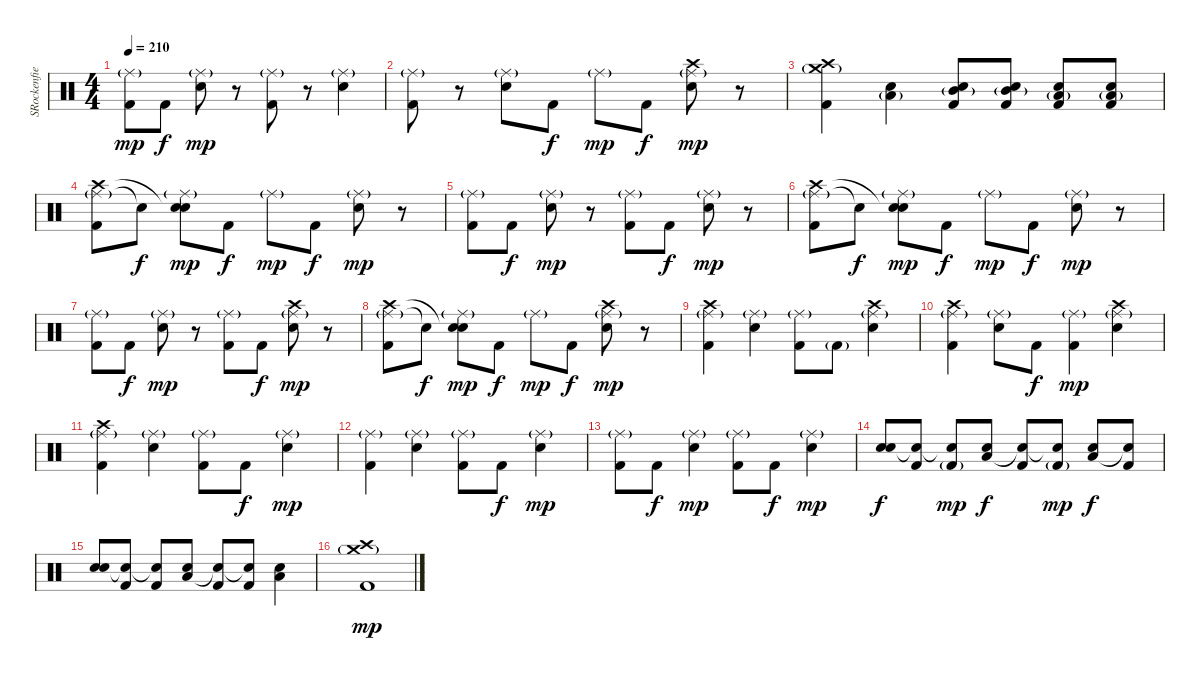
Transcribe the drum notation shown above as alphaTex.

\track ("SRockenfield" "SRockenfie") {instrument percussion}
\staff {score}
\articulation defaults
\ts (4 4)
\tempo 210
\clef neutral
\ks c
("Ride (middle)"{g} "Kick (hit) 2").8{dy mp} "Kick (hit) 2".8{dy f} ("Ride (middle)"{g} "Electric Snare (hit)").8{dy mp} r.8 ("Ride (middle)"{g} "Kick (hit) 2").8 r.8 ("Ride (middle)"{g} "Electric Snare (hit)").4 |
("Ride (middle)"{g} "Kick (hit) 2").8 r.8 ("Ride (middle)"{g} "Electric Snare (hit)").8 "Kick (hit) 2".8{dy f} "Ride (middle)"{g}.8{dy mp} "Kick (hit) 2".8{dy f} ("Ride (middle)"{g} "Crash high (hit)" "Electric Snare (hit)").8{dy mp} r.8 |
("Crash medium (hit)"{g} "Crash high (hit)" "Kick (hit) 2").4 ("Electric Snare (hit)" "Low Floor Tom (hit)"{g}).4 ("Electric Snare (hit)" "Mid Tom (hit)"{g} "Kick (hit) 2").8 ("Electric Snare (hit)" "Mid Tom (hit)"{g} "Kick (hit) 2").8 ("Electric Snare (hit)" "Low Tom (hit)"{g} "Kick (hit) 2").8 ("Electric Snare (hit)" "Low Tom (hit)"{g} "Kick (hit) 2").8 |
("Ride (middle)"{g} "Crash high (hit)" "Kick (hit) 2").8 "Snare (hit)"{t}.8{dy f} ("Ride (middle)"{g} "Snare (hit)"{t} "Electric Snare (hit)").8{dy mp} "Kick (hit) 2".8{dy f} "Ride (middle)"{g}.8{dy mp} "Kick (hit) 2".8{dy f} ("Ride (middle)"{g} "Electric Snare (hit)").8{dy mp} r.8 |
("Ride (middle)"{g} "Kick (hit) 2").8 "Kick (hit) 2".8{dy f} ("Ride (middle)"{g} "Electric Snare (hit)").8{dy mp} r.8 ("Ride (middle)"{g} "Kick (hit) 2").8 "Kick (hit) 2".8{dy f} ("Ride (middle)"{g} "Electric Snare (hit)").8{dy mp} r.8 |
("Ride (middle)"{g} "Crash high (hit)" "Kick (hit) 2").8 "Snare (hit)"{t}.8{dy f} ("Ride (middle)"{g} "Snare (hit)"{t} "Electric Snare (hit)").8{dy mp} "Kick (hit) 2".8{dy f} "Ride (middle)"{g}.8{dy mp} "Kick (hit) 2".8{dy f} ("Ride (middle)"{g} "Electric Snare (hit)").8{dy mp} r.8 |
("Ride (middle)"{g} "Kick (hit) 2").8 "Kick (hit) 2".8{dy f} ("Ride (middle)"{g} "Electric Snare (hit)").8{dy mp} r.8 ("Ride (middle)"{g} "Kick (hit) 2").8 "Kick (hit) 2".8{dy f} ("Ride (middle)"{g} "Crash high (hit)" "Electric Snare (hit)").8{dy mp} r.8 |
("Ride (middle)"{g} "Crash high (hit)" "Kick (hit) 2").8 "Snare (hit)"{t}.8{dy f} ("Ride (middle)"{g} "Snare (hit)"{t} "Electric Snare (hit)").8{dy mp} "Kick (hit) 2".8{dy f} "Ride (middle)"{g}.8{dy mp} "Kick (hit) 2".8{dy f} ("Ride (middle)"{g} "Crash high (hit)" "Electric Snare (hit)").8{dy mp} r.8 |
("Ride (middle)"{g} "Crash high (hit)" "Kick (hit) 2").4 ("Ride (middle)"{g} "Electric Snare (hit)").4 ("Ride (middle)"{g} "Kick (hit) 2").8 "Kick (hit) 2"{g}.8 ("Ride (middle)"{g} "Crash high (hit)" "Electric Snare (hit)").4 |
("Ride (middle)"{g} "Crash high (hit)" "Kick (hit) 2").4 ("Ride (middle)"{g} "Electric Snare (hit)").8 "Kick (hit) 2".8{dy f} ("Ride (middle)"{g} "Kick (hit) 2").4{dy mp} ("Ride (middle)"{g} "Crash high (hit)" "Electric Snare (hit)").4 |
("Ride (middle)"{g} "Crash high (hit)" "Kick (hit) 2").4 ("Ride (middle)"{g} "Electric Snare (hit)").4 ("Ride (middle)"{g} "Kick (hit) 2").8 "Kick (hit) 2".8{dy f} ("Ride (middle)"{g} "Electric Snare (hit)").4{dy mp} |
("Ride (middle)"{g} "Kick (hit) 2").4 ("Ride (middle)"{g} "Electric Snare (hit)").4 ("Ride (middle)"{g} "Kick (hit) 2").8 "Kick (hit) 2".8{dy f} ("Ride (middle)"{g} "Electric Snare (hit)").4{dy mp} |
("Ride (middle)"{g} "Kick (hit) 2").8 "Kick (hit) 2".8{dy f} ("Ride (middle)"{g} "Electric Snare (hit)").4{dy mp} ("Ride (middle)"{g} "Kick (hit) 2").8 "Kick (hit) 2".8{dy f} ("Ride (middle)"{g} "Electric Snare (hit)").4{dy mp} |
("Electric Snare (hit)" "Electric Snare (hit)").8{dy f} ("Snare (hit)"{t} "Kick (hit) 2").8 ("Snare (hit)"{t} "Kick (hit) 2"{g}).8{dy mp} ("Low Floor Tom (hit)" "Electric Snare (hit)").8{dy f} ("Snare (hit)"{t} "Kick (hit) 2").8 ("Snare (hit)"{t} "Kick (hit) 2"{g}).8{dy mp} ("Low Floor Tom (hit)" "Electric Snare (hit)").8{dy f} ("Snare (hit)"{t} "Kick (hit) 2").8 |
("Electric Snare (hit)" "Electric Snare (hit)").8 ("Snare (hit)"{t} "Kick (hit) 2").8 ("Snare (hit)"{t} "Kick (hit) 2").8 ("Low Floor Tom (hit)" "Electric Snare (hit)").8 ("Snare (hit)"{t} "Kick (hit) 2").8 ("Snare (hit)"{t} "Kick (hit) 2").8 ("Low Floor Tom (hit)" "Electric Snare (hit)").4 |
("Crash medium (hit)"{g} "Crash high (hit)" "Kick (hit) 2").1{dy mp}
